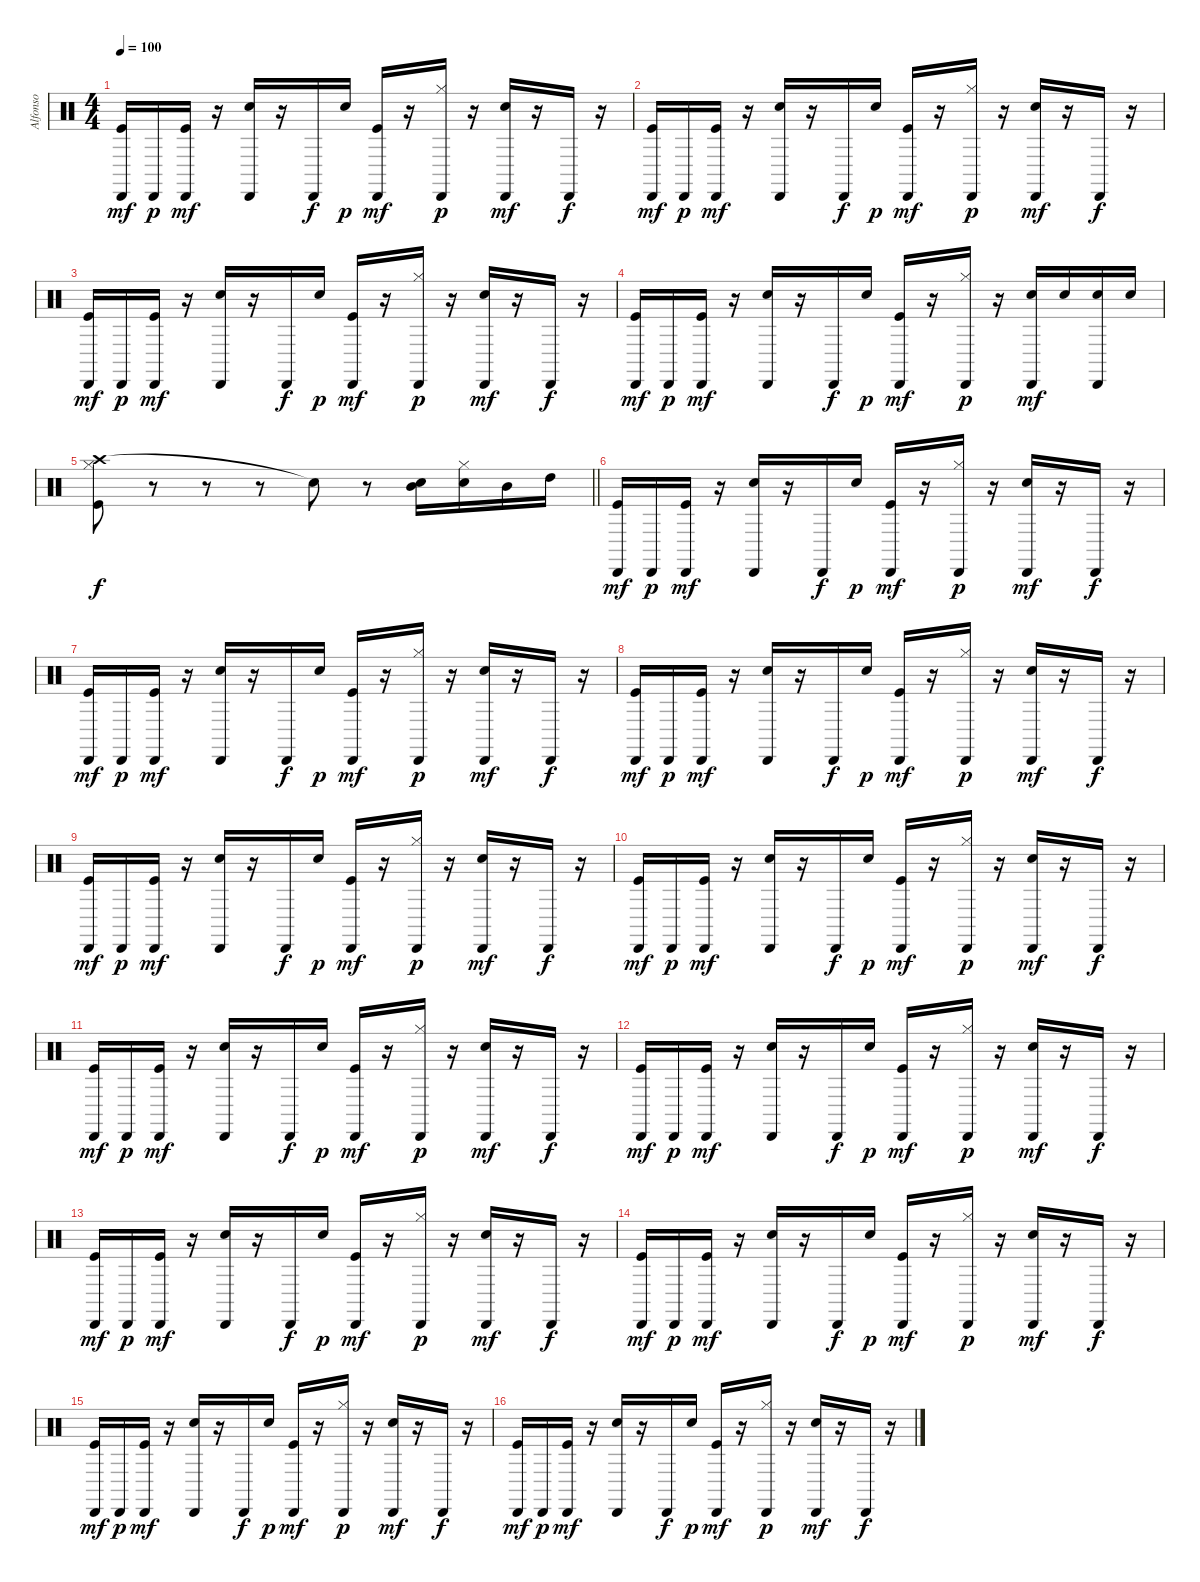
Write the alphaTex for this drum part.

\track ("Alfonso" "Alfonso") {instrument percussion}
\staff {score}
\articulation defaults
\ts (4 4)
\tempo 100
\clef neutral
\ks c
("Kick (hit)" "Cabasa (hit)").16{dy mf} "Cabasa (hit)".16{dy p} ("Kick (hit)" "Cabasa (hit)").16{dy mf} r.16 ("Electric Snare (hit)" "Cabasa (hit)").16 r.16 "Cabasa (hit)".16{dy f} "Electric Snare (hit)".16{dy p} ("Kick (hit)" "Cabasa (hit)").16{dy mf} r.16 ("Hi-Hat (closed)" "Cabasa (hit)").16{dy p} r.16 ("Electric Snare (hit)" "Cabasa (hit)").16{dy mf} r.16 "Cabasa (hit)".16{dy f} r.16 |
("Kick (hit)" "Cabasa (hit)").16{dy mf} "Cabasa (hit)".16{dy p} ("Kick (hit)" "Cabasa (hit)").16{dy mf} r.16 ("Electric Snare (hit)" "Cabasa (hit)").16 r.16 "Cabasa (hit)".16{dy f} "Electric Snare (hit)".16{dy p} ("Kick (hit)" "Cabasa (hit)").16{dy mf} r.16 ("Hi-Hat (closed)" "Cabasa (hit)").16{dy p} r.16 ("Electric Snare (hit)" "Cabasa (hit)").16{dy mf} r.16 "Cabasa (hit)".16{dy f} r.16 |
("Kick (hit)" "Cabasa (hit)").16{dy mf} "Cabasa (hit)".16{dy p} ("Kick (hit)" "Cabasa (hit)").16{dy mf} r.16 ("Electric Snare (hit)" "Cabasa (hit)").16 r.16 "Cabasa (hit)".16{dy f} "Electric Snare (hit)".16{dy p} ("Kick (hit)" "Cabasa (hit)").16{dy mf} r.16 ("Hi-Hat (closed)" "Cabasa (hit)").16{dy p} r.16 ("Electric Snare (hit)" "Cabasa (hit)").16{dy mf} r.16 "Cabasa (hit)".16{dy f} r.16 |
("Kick (hit)" "Cabasa (hit)").16{dy mf} "Cabasa (hit)".16{dy p} ("Kick (hit)" "Cabasa (hit)").16{dy mf} r.16 ("Electric Snare (hit)" "Cabasa (hit)").16 r.16 "Cabasa (hit)".16{dy f} "Electric Snare (hit)".16{dy p} ("Kick (hit)" "Cabasa (hit)").16{dy mf} r.16 ("Hi-Hat (closed)" "Cabasa (hit)").16{dy p} r.16 ("Electric Snare (hit)" "Cabasa (hit)").16{dy mf} "Snare (hit) 2".16 ("Snare (hit) 2" "Cabasa (hit)").16 "Snare (hit) 2".16 |
\barLineRight lightlight
("Crash high (hit)" "Hi-Hat (closed)" "Kick (hit)").8{dy f} r.8 r.8 r.8 "Snare (hit)"{t}.8 r.8 ("Electric Snare (hit)" "Mid Tom (hit)").16 ("Electric Snare (hit)" "Hi-Hat (closed)").16 "Mid Tom (hit)".16 "High Tom (hit)".16 |
("Kick (hit)" "Cabasa (hit)").16{dy mf} "Cabasa (hit)".16{dy p} ("Kick (hit)" "Cabasa (hit)").16{dy mf} r.16 ("Electric Snare (hit)" "Cabasa (hit)").16 r.16 "Cabasa (hit)".16{dy f} "Electric Snare (hit)".16{dy p} ("Kick (hit)" "Cabasa (hit)").16{dy mf} r.16 ("Hi-Hat (closed)" "Cabasa (hit)").16{dy p} r.16 ("Electric Snare (hit)" "Cabasa (hit)").16{dy mf} r.16 "Cabasa (hit)".16{dy f} r.16 |
("Kick (hit)" "Cabasa (hit)").16{dy mf} "Cabasa (hit)".16{dy p} ("Kick (hit)" "Cabasa (hit)").16{dy mf} r.16 ("Electric Snare (hit)" "Cabasa (hit)").16 r.16 "Cabasa (hit)".16{dy f} "Electric Snare (hit)".16{dy p} ("Kick (hit)" "Cabasa (hit)").16{dy mf} r.16 ("Hi-Hat (closed)" "Cabasa (hit)").16{dy p} r.16 ("Electric Snare (hit)" "Cabasa (hit)").16{dy mf} r.16 "Cabasa (hit)".16{dy f} r.16 |
("Kick (hit)" "Cabasa (hit)").16{dy mf} "Cabasa (hit)".16{dy p} ("Kick (hit)" "Cabasa (hit)").16{dy mf} r.16 ("Electric Snare (hit)" "Cabasa (hit)").16 r.16 "Cabasa (hit)".16{dy f} "Electric Snare (hit)".16{dy p} ("Kick (hit)" "Cabasa (hit)").16{dy mf} r.16 ("Hi-Hat (closed)" "Cabasa (hit)").16{dy p} r.16 ("Electric Snare (hit)" "Cabasa (hit)").16{dy mf} r.16 "Cabasa (hit)".16{dy f} r.16 |
("Kick (hit)" "Cabasa (hit)").16{dy mf} "Cabasa (hit)".16{dy p} ("Kick (hit)" "Cabasa (hit)").16{dy mf} r.16 ("Electric Snare (hit)" "Cabasa (hit)").16 r.16 "Cabasa (hit)".16{dy f} "Electric Snare (hit)".16{dy p} ("Kick (hit)" "Cabasa (hit)").16{dy mf} r.16 ("Hi-Hat (closed)" "Cabasa (hit)").16{dy p} r.16 ("Electric Snare (hit)" "Cabasa (hit)").16{dy mf} r.16 "Cabasa (hit)".16{dy f} r.16 |
("Kick (hit)" "Cabasa (hit)").16{dy mf} "Cabasa (hit)".16{dy p} ("Kick (hit)" "Cabasa (hit)").16{dy mf} r.16 ("Electric Snare (hit)" "Cabasa (hit)").16 r.16 "Cabasa (hit)".16{dy f} "Electric Snare (hit)".16{dy p} ("Kick (hit)" "Cabasa (hit)").16{dy mf} r.16 ("Hi-Hat (closed)" "Cabasa (hit)").16{dy p} r.16 ("Electric Snare (hit)" "Cabasa (hit)").16{dy mf} r.16 "Cabasa (hit)".16{dy f} r.16 |
("Kick (hit)" "Cabasa (hit)").16{dy mf} "Cabasa (hit)".16{dy p} ("Kick (hit)" "Cabasa (hit)").16{dy mf} r.16 ("Electric Snare (hit)" "Cabasa (hit)").16 r.16 "Cabasa (hit)".16{dy f} "Electric Snare (hit)".16{dy p} ("Kick (hit)" "Cabasa (hit)").16{dy mf} r.16 ("Hi-Hat (closed)" "Cabasa (hit)").16{dy p} r.16 ("Electric Snare (hit)" "Cabasa (hit)").16{dy mf} r.16 "Cabasa (hit)".16{dy f} r.16 |
("Kick (hit)" "Cabasa (hit)").16{dy mf} "Cabasa (hit)".16{dy p} ("Kick (hit)" "Cabasa (hit)").16{dy mf} r.16 ("Electric Snare (hit)" "Cabasa (hit)").16 r.16 "Cabasa (hit)".16{dy f} "Electric Snare (hit)".16{dy p} ("Kick (hit)" "Cabasa (hit)").16{dy mf} r.16 ("Hi-Hat (closed)" "Cabasa (hit)").16{dy p} r.16 ("Electric Snare (hit)" "Cabasa (hit)").16{dy mf} r.16 "Cabasa (hit)".16{dy f} r.16 |
("Kick (hit)" "Cabasa (hit)").16{dy mf} "Cabasa (hit)".16{dy p} ("Kick (hit)" "Cabasa (hit)").16{dy mf} r.16 ("Electric Snare (hit)" "Cabasa (hit)").16 r.16 "Cabasa (hit)".16{dy f} "Electric Snare (hit)".16{dy p} ("Kick (hit)" "Cabasa (hit)").16{dy mf} r.16 ("Hi-Hat (closed)" "Cabasa (hit)").16{dy p} r.16 ("Electric Snare (hit)" "Cabasa (hit)").16{dy mf} r.16 "Cabasa (hit)".16{dy f} r.16 |
("Kick (hit)" "Cabasa (hit)").16{dy mf} "Cabasa (hit)".16{dy p} ("Kick (hit)" "Cabasa (hit)").16{dy mf} r.16 ("Electric Snare (hit)" "Cabasa (hit)").16 r.16 "Cabasa (hit)".16{dy f} "Electric Snare (hit)".16{dy p} ("Kick (hit)" "Cabasa (hit)").16{dy mf} r.16 ("Hi-Hat (closed)" "Cabasa (hit)").16{dy p} r.16 ("Electric Snare (hit)" "Cabasa (hit)").16{dy mf} r.16 "Cabasa (hit)".16{dy f} r.16 |
("Kick (hit)" "Cabasa (hit)").16{dy mf} "Cabasa (hit)".16{dy p} ("Kick (hit)" "Cabasa (hit)").16{dy mf} r.16 ("Electric Snare (hit)" "Cabasa (hit)").16 r.16 "Cabasa (hit)".16{dy f} "Electric Snare (hit)".16{dy p} ("Kick (hit)" "Cabasa (hit)").16{dy mf} r.16 ("Hi-Hat (closed)" "Cabasa (hit)").16{dy p} r.16 ("Electric Snare (hit)" "Cabasa (hit)").16{dy mf} r.16 "Cabasa (hit)".16{dy f} r.16 |
("Kick (hit)" "Cabasa (hit)").16{dy mf} "Cabasa (hit)".16{dy p} ("Kick (hit)" "Cabasa (hit)").16{dy mf} r.16 ("Electric Snare (hit)" "Cabasa (hit)").16 r.16 "Cabasa (hit)".16{dy f} "Electric Snare (hit)".16{dy p} ("Kick (hit)" "Cabasa (hit)").16{dy mf} r.16 ("Hi-Hat (closed)" "Cabasa (hit)").16{dy p} r.16 ("Electric Snare (hit)" "Cabasa (hit)").16{dy mf} r.16 "Cabasa (hit)".16{dy f} r.16
